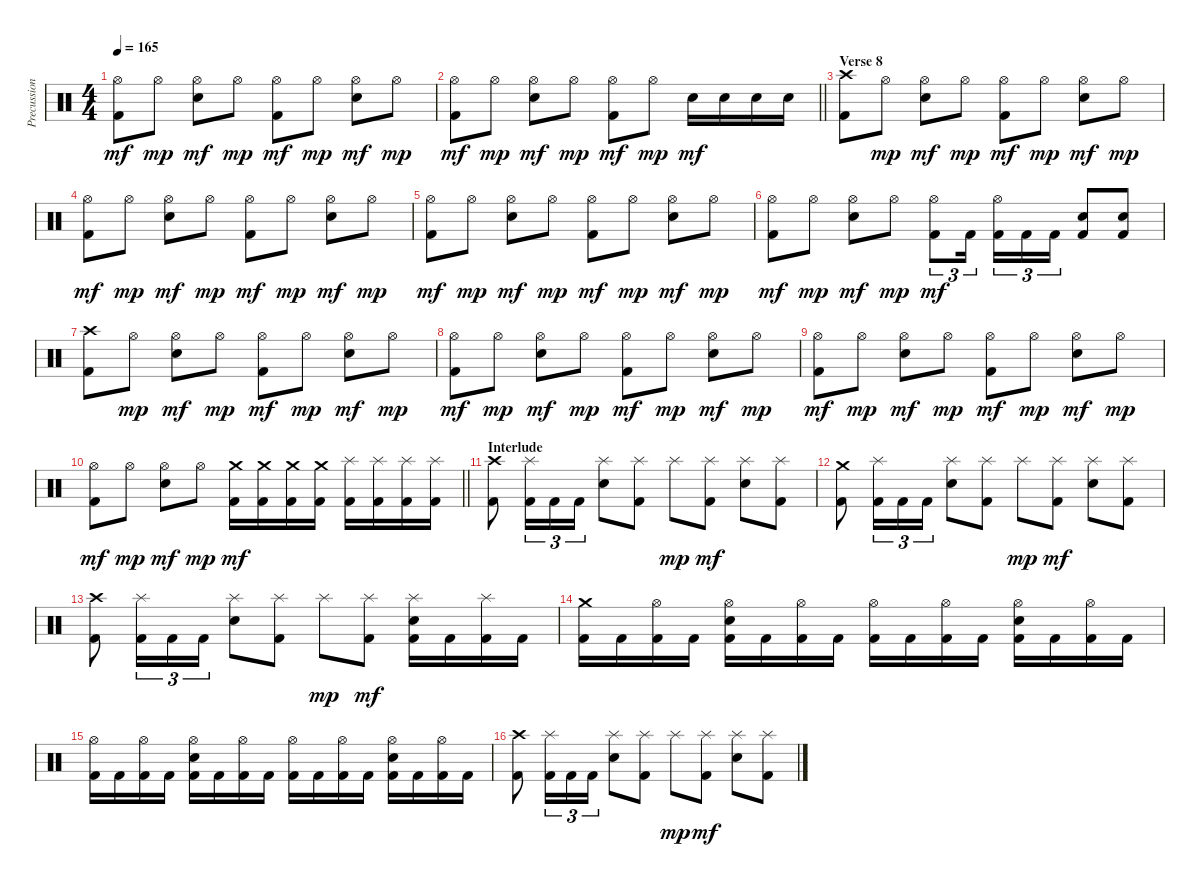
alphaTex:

\track ("Precussion" "Precussion") {instrument percussion}
\staff {score}
\articulation defaults
\ts (4 4)
\tempo 165
\clef neutral
\ks c
("Hi-Hat (open)" "Kick (hit) 2").8{dy mf} "Hi-Hat (open)".8{dy mp} ("Hi-Hat (open)" "Electric Snare (hit)").8{dy mf} "Hi-Hat (open)".8{dy mp} ("Hi-Hat (open)" "Kick (hit) 2").8{dy mf} "Hi-Hat (open)".8{dy mp} ("Hi-Hat (open)" "Electric Snare (hit)").8{dy mf} "Hi-Hat (open)".8{dy mp} |
\barLineRight lightlight
("Hi-Hat (open)" "Kick (hit) 2").8{dy mf} "Hi-Hat (open)".8{dy mp} ("Hi-Hat (open)" "Electric Snare (hit)").8{dy mf} "Hi-Hat (open)".8{dy mp} ("Hi-Hat (open)" "Kick (hit) 2").8{dy mf} "Hi-Hat (open)".8{dy mp} "Electric Snare (hit)".16{dy mf} "Electric Snare (hit)".16 "Electric Snare (hit)".16 "Electric Snare (hit)".16 |
\section ("" "Verse 8")
("Crash high (hit)" "Kick (hit) 2").8 "Hi-Hat (open)".8{dy mp} ("Hi-Hat (open)" "Electric Snare (hit)").8{dy mf} "Hi-Hat (open)".8{dy mp} ("Hi-Hat (open)" "Kick (hit) 2").8{dy mf} "Hi-Hat (open)".8{dy mp} ("Hi-Hat (open)" "Electric Snare (hit)").8{dy mf} "Hi-Hat (open)".8{dy mp} |
("Hi-Hat (open)" "Kick (hit) 2").8{dy mf} "Hi-Hat (open)".8{dy mp} ("Hi-Hat (open)" "Electric Snare (hit)").8{dy mf} "Hi-Hat (open)".8{dy mp} ("Hi-Hat (open)" "Kick (hit) 2").8{dy mf} "Hi-Hat (open)".8{dy mp} ("Hi-Hat (open)" "Electric Snare (hit)").8{dy mf} "Hi-Hat (open)".8{dy mp} |
("Hi-Hat (open)" "Kick (hit) 2").8{dy mf} "Hi-Hat (open)".8{dy mp} ("Hi-Hat (open)" "Electric Snare (hit)").8{dy mf} "Hi-Hat (open)".8{dy mp} ("Hi-Hat (open)" "Kick (hit) 2").8{dy mf} "Hi-Hat (open)".8{dy mp} ("Hi-Hat (open)" "Electric Snare (hit)").8{dy mf} "Hi-Hat (open)".8{dy mp} |
("Hi-Hat (open)" "Kick (hit) 2").8{dy mf} "Hi-Hat (open)".8{dy mp} ("Hi-Hat (open)" "Electric Snare (hit)").8{dy mf} "Hi-Hat (open)".8{dy mp} ("Hi-Hat (open)" "Kick (hit) 2").8{tu (3 2) dy mf} "Kick (hit) 2".16{tu (3 2) beam splitsecondary} ("Hi-Hat (open)" "Kick (hit) 2").16{tu (3 2)} "Kick (hit) 2".16{tu (3 2)} "Kick (hit) 2".16{tu (3 2)} ("Electric Snare (hit)" "Kick (hit) 2").8 ("Electric Snare (hit)" "Kick (hit) 2").8 |
("Crash high (hit)" "Kick (hit) 2").8 "Hi-Hat (open)".8{dy mp} ("Hi-Hat (open)" "Electric Snare (hit)").8{dy mf} "Hi-Hat (open)".8{dy mp} ("Hi-Hat (open)" "Kick (hit) 2").8{dy mf} "Hi-Hat (open)".8{dy mp} ("Hi-Hat (open)" "Electric Snare (hit)").8{dy mf} "Hi-Hat (open)".8{dy mp} |
("Hi-Hat (open)" "Kick (hit) 2").8{dy mf} "Hi-Hat (open)".8{dy mp} ("Hi-Hat (open)" "Electric Snare (hit)").8{dy mf} "Hi-Hat (open)".8{dy mp} ("Hi-Hat (open)" "Kick (hit) 2").8{dy mf} "Hi-Hat (open)".8{dy mp} ("Hi-Hat (open)" "Electric Snare (hit)").8{dy mf} "Hi-Hat (open)".8{dy mp} |
("Hi-Hat (open)" "Kick (hit) 2").8{dy mf} "Hi-Hat (open)".8{dy mp} ("Hi-Hat (open)" "Electric Snare (hit)").8{dy mf} "Hi-Hat (open)".8{dy mp} ("Hi-Hat (open)" "Kick (hit) 2").8{dy mf} "Hi-Hat (open)".8{dy mp} ("Hi-Hat (open)" "Electric Snare (hit)").8{dy mf} "Hi-Hat (open)".8{dy mp} |
\barLineRight lightlight
("Hi-Hat (open)" "Kick (hit) 2").8{dy mf} "Hi-Hat (open)".8{dy mp} ("Hi-Hat (open)" "Electric Snare (hit)").8{dy mf} "Hi-Hat (open)".8{dy mp} ("Crash medium (hit)" "Kick (hit) 2").16{dy mf} ("Crash medium (hit)" "Kick (hit) 2").16 ("Crash medium (hit)" "Kick (hit) 2").16 ("Crash medium (hit)" "Kick (hit) 2").16 ("Splash (hit)" "Kick (hit) 2").16 ("Splash (hit)" "Kick (hit) 2").16 ("Splash (hit)" "Kick (hit) 2").16 ("Splash (hit)" "Kick (hit) 2").16 |
\section ("" "Interlude")
("Crash high (hit)" "Kick (hit) 2").8 ("Splash (hit)" "Kick (hit) 2").16{tu (3 2)} "Kick (hit) 2".16{tu (3 2)} "Kick (hit) 2".16{tu (3 2)} ("Splash (hit)" "Electric Snare (hit)").8 ("Splash (hit)" "Kick (hit) 2").8 "Splash (hit)".8{dy mp} ("Splash (hit)" "Kick (hit) 2").8{dy mf} ("Splash (hit)" "Electric Snare (hit)").8 ("Splash (hit)" "Kick (hit) 2").8 |
("Crash medium (hit)" "Kick (hit) 2").8 ("Splash (hit)" "Kick (hit) 2").16{tu (3 2)} "Kick (hit) 2".16{tu (3 2)} "Kick (hit) 2".16{tu (3 2)} ("Splash (hit)" "Electric Snare (hit)").8 ("Splash (hit)" "Kick (hit) 2").8 "Splash (hit)".8{dy mp} ("Splash (hit)" "Kick (hit) 2").8{dy mf} ("Splash (hit)" "Electric Snare (hit)").8 ("Splash (hit)" "Kick (hit) 2").8 |
("Crash high (hit)" "Kick (hit) 2").8 ("Splash (hit)" "Kick (hit) 2").16{tu (3 2)} "Kick (hit) 2".16{tu (3 2)} "Kick (hit) 2".16{tu (3 2)} ("Splash (hit)" "Electric Snare (hit)").8 ("Splash (hit)" "Kick (hit) 2").8 "Splash (hit)".8{dy mp} ("Splash (hit)" "Kick (hit) 2").8{dy mf} ("Splash (hit)" "Electric Snare (hit)" "Kick (hit) 2").16 "Kick (hit) 2".16 ("Splash (hit)" "Kick (hit) 2").16 "Kick (hit) 2".16 |
("Crash medium (hit)" "Kick (hit) 2").16 "Kick (hit) 2".16 ("Hi-Hat (open)" "Kick (hit) 2").16 "Kick (hit) 2".16 ("Hi-Hat (open)" "Electric Snare (hit)" "Kick (hit) 2").16 "Kick (hit) 2".16 ("Hi-Hat (open)" "Kick (hit) 2").16 "Kick (hit) 2".16 ("Hi-Hat (open)" "Kick (hit) 2").16 "Kick (hit) 2".16 ("Hi-Hat (open)" "Kick (hit) 2").16 "Kick (hit) 2".16 ("Hi-Hat (open)" "Electric Snare (hit)" "Kick (hit) 2").16 "Kick (hit) 2".16 ("Hi-Hat (open)" "Kick (hit) 2").16 "Kick (hit) 2".16 |
("Hi-Hat (open)" "Kick (hit) 2").16 "Kick (hit) 2".16 ("Hi-Hat (open)" "Kick (hit) 2").16 "Kick (hit) 2".16 ("Hi-Hat (open)" "Electric Snare (hit)" "Kick (hit) 2").16 "Kick (hit) 2".16 ("Hi-Hat (open)" "Kick (hit) 2").16 "Kick (hit) 2".16 ("Hi-Hat (open)" "Kick (hit) 2").16 "Kick (hit) 2".16 ("Hi-Hat (open)" "Kick (hit) 2").16 "Kick (hit) 2".16 ("Hi-Hat (open)" "Electric Snare (hit)" "Kick (hit) 2").16 "Kick (hit) 2".16 ("Hi-Hat (open)" "Kick (hit) 2").16 "Kick (hit) 2".16 |
("Crash high (hit)" "Kick (hit) 2").8 ("Splash (hit)" "Kick (hit) 2").16{tu (3 2)} "Kick (hit) 2".16{tu (3 2)} "Kick (hit) 2".16{tu (3 2)} ("Splash (hit)" "Electric Snare (hit)").8 ("Splash (hit)" "Kick (hit) 2").8 "Splash (hit)".8{dy mp} ("Splash (hit)" "Kick (hit) 2").8{dy mf} ("Splash (hit)" "Electric Snare (hit)").8 ("Splash (hit)" "Kick (hit) 2").8
